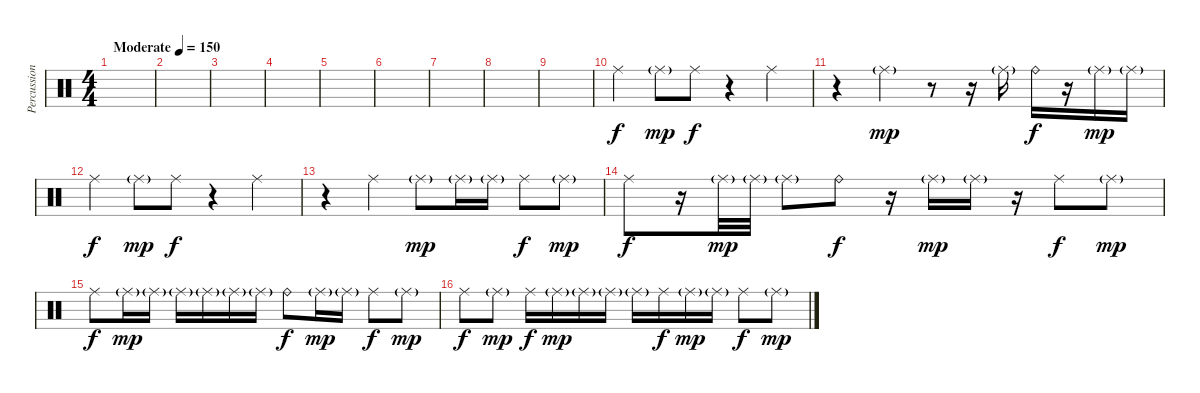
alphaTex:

\track ("Percussion" "Percussion") {instrument percussion}
\staff {score}
\articulation defaults
\ts (4 4)
\tempo (150 "Moderate")
\clef neutral
\ks c
|
|
|
|
|
|
|
|
|
"Ride (middle)".4 "Ride (middle)"{g}.8{dy mp} "Ride (middle)".8{dy f} r.4 "Ride (middle)".4 |
r.4 "Ride (middle)"{g}.4{dy mp} r.8 r.16 "Ride (middle)"{g}.16 "Ride (bell)".16{dy f} r.16 "Ride (middle)"{g}.16{dy mp} "Ride (middle)"{g}.16 |
"Ride (middle)".4{dy f} "Ride (middle)"{g}.8{dy mp} "Ride (middle)".8{dy f} r.4 "Ride (middle)".4 |
r.4 "Ride (middle)".4 "Ride (middle)"{g}.8{dy mp} "Ride (middle)"{g}.16 "Ride (middle)"{g}.16 "Ride (middle)".8{dy f} "Ride (middle)"{g}.8{dy mp} |
"Ride (middle)".8{dy f} r.16 "Ride (middle)"{g}.32{dy mp} "Ride (middle)"{g}.32 "Ride (middle)"{g}.8 "Ride (bell)".8{dy f} r.16 "Ride (middle)"{g}.16{dy mp} "Ride (middle)"{g}.16 r.16 "Ride (middle)".8{dy f} "Ride (middle)"{g}.8{dy mp} |
"Ride (middle)".8{dy f} "Ride (middle)"{g}.16{dy mp} "Ride (middle)"{g}.16 "Ride (middle)"{g}.16 "Ride (middle)"{g}.16 "Ride (middle)"{g}.16 "Ride (middle)"{g}.16 "Ride (bell)".8{dy f} "Ride (middle)"{g}.16{dy mp} "Ride (middle)"{g}.16 "Ride (middle)".8{dy f} "Ride (middle)"{g}.8{dy mp} |
"Ride (middle)".8{dy f} "Ride (middle)"{g}.8{dy mp} "Ride (middle)".16{dy f} "Ride (middle)"{g}.16{dy mp} "Ride (middle)"{g}.16 "Ride (middle)"{g}.16 "Ride (middle)"{g}.16 "Ride (middle)".16{dy f} "Ride (middle)"{g}.16{dy mp} "Ride (middle)"{g}.16 "Ride (middle)".8{dy f} "Ride (middle)"{g}.8{dy mp}
